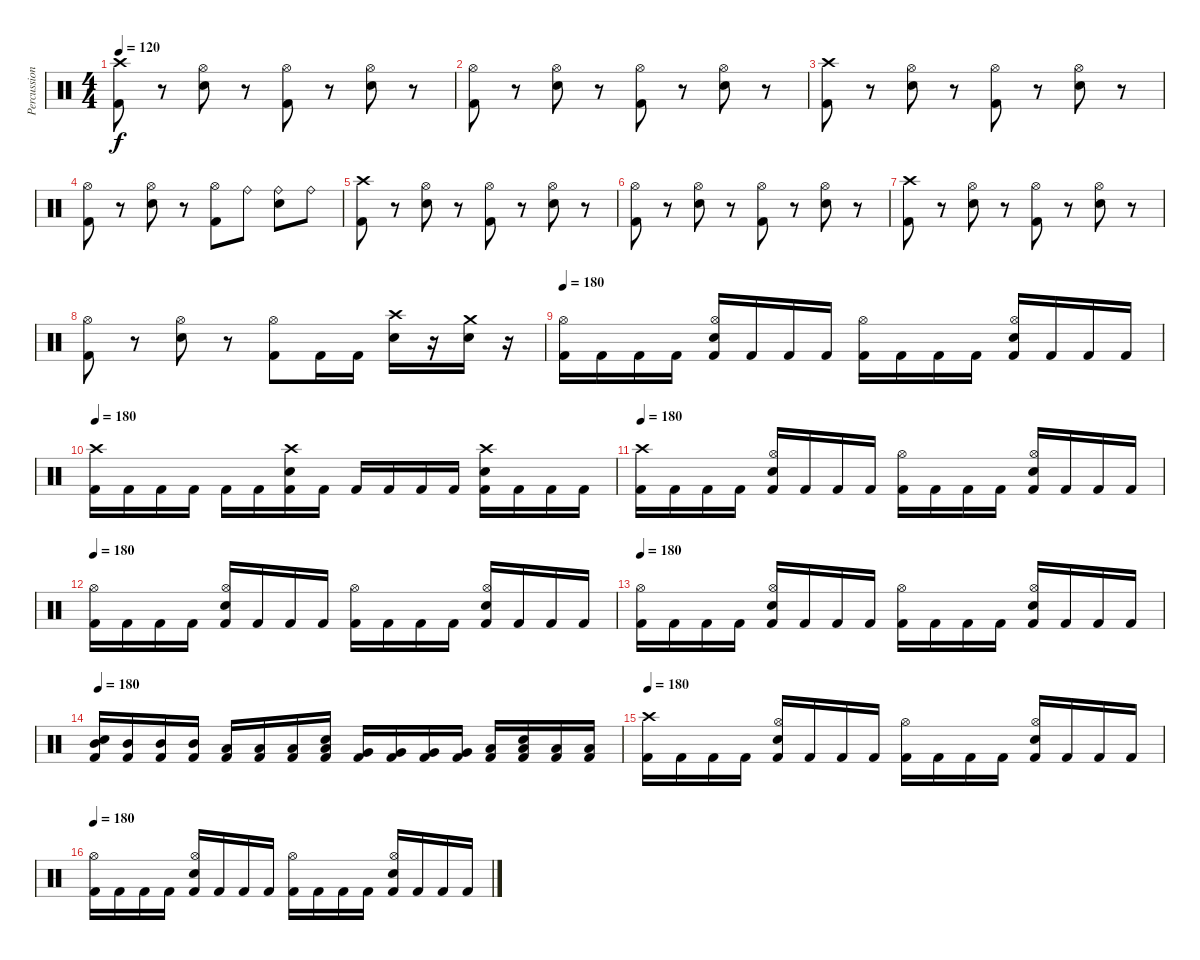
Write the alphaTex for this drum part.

\track ("Percussion" "Percussion") {instrument percussion}
\staff {score}
\articulation defaults
\ts (4 4)
\tempo 120
\clef neutral
\ks c
("Crash high (hit)" "Kick (hit) 2").8{dy f} r.8 ("Hi-Hat (open)" "Snare (hit) 2").8 r.8 ("Hi-Hat (open)" "Kick (hit) 2").8 r.8 ("Hi-Hat (open)" "Snare (hit) 2").8 r.8 |
("Hi-Hat (open)" "Kick (hit) 2").8 r.8 ("Hi-Hat (open)" "Snare (hit) 2").8 r.8 ("Hi-Hat (open)" "Kick (hit) 2").8 r.8 ("Hi-Hat (open)" "Snare (hit) 2").8 r.8 |
("Crash high (hit)" "Kick (hit) 2").8 r.8 ("Hi-Hat (open)" "Snare (hit) 2").8 r.8 ("Hi-Hat (open)" "Kick (hit) 2").8 r.8 ("Hi-Hat (open)" "Snare (hit) 2").8 r.8 |
("Hi-Hat (open)" "Kick (hit) 2").8 r.8 ("Hi-Hat (open)" "Snare (hit) 2").8 r.8 ("Hi-Hat (open)" "Kick (hit) 2").8 "Ride (bell)".8 ("Ride (bell)" "Snare (hit) 2").8 "Ride (bell)".8 |
("Crash high (hit)" "Kick (hit) 2").8 r.8 ("Hi-Hat (open)" "Snare (hit) 2").8 r.8 ("Hi-Hat (open)" "Kick (hit) 2").8 r.8 ("Hi-Hat (open)" "Snare (hit) 2").8 r.8 |
("Hi-Hat (open)" "Kick (hit) 2").8 r.8 ("Hi-Hat (open)" "Snare (hit) 2").8 r.8 ("Hi-Hat (open)" "Kick (hit) 2").8 r.8 ("Hi-Hat (open)" "Snare (hit) 2").8 r.8 |
("Crash high (hit)" "Kick (hit) 2").8 r.8 ("Hi-Hat (open)" "Snare (hit) 2").8 r.8 ("Hi-Hat (open)" "Kick (hit) 2").8 r.8 ("Hi-Hat (open)" "Snare (hit) 2").8 r.8 |
("Hi-Hat (open)" "Kick (hit) 2").8 r.8 ("Hi-Hat (open)" "Snare (hit) 2").8 r.8 ("Hi-Hat (open)" "Kick (hit) 2").8 "Kick (hit) 2".16 "Kick (hit) 2".16 ("Crash high (hit)" "Snare (hit) 2").16 r.16 ("Crash medium (hit)" "Snare (hit) 2").16 r.16 |
\tempo 180
("Hi-Hat (open)" "Kick (hit) 2").16 "Kick (hit) 2".16 "Kick (hit) 2".16 "Kick (hit) 2".16 ("Hi-Hat (open)" "Snare (hit) 2" "Kick (hit) 2").16 "Kick (hit) 2".16 "Kick (hit) 2".16 "Kick (hit) 2".16 ("Hi-Hat (open)" "Kick (hit) 2").16 "Kick (hit) 2".16 "Kick (hit) 2".16 "Kick (hit) 2".16 ("Hi-Hat (open)" "Snare (hit) 2" "Kick (hit) 2").16 "Kick (hit) 2".16 "Kick (hit) 2".16 "Kick (hit) 2".16 |
\tempo 180
("Crash high (hit)" "Kick (hit) 2").16 "Kick (hit) 2".16 "Kick (hit) 2".16 "Kick (hit) 2".16 "Kick (hit) 2".16 "Kick (hit) 2".16 ("Crash high (hit)" "Snare (hit) 2" "Kick (hit) 2").16 "Kick (hit) 2".16 "Kick (hit) 2".16 "Kick (hit) 2".16 "Kick (hit) 2".16 "Kick (hit) 2".16 ("Crash high (hit)" "Snare (hit) 2" "Kick (hit) 2").16 "Kick (hit) 2".16 "Kick (hit) 2".16 "Kick (hit) 2".16 |
\tempo 180
("Crash high (hit)" "Kick (hit) 2").16 "Kick (hit) 2".16 "Kick (hit) 2".16 "Kick (hit) 2".16 ("Hi-Hat (open)" "Snare (hit) 2" "Kick (hit) 2").16 "Kick (hit) 2".16 "Kick (hit) 2".16 "Kick (hit) 2".16 ("Hi-Hat (open)" "Kick (hit) 2").16 "Kick (hit) 2".16 "Kick (hit) 2".16 "Kick (hit) 2".16 ("Hi-Hat (open)" "Snare (hit) 2" "Kick (hit) 2").16 "Kick (hit) 2".16 "Kick (hit) 2".16 "Kick (hit) 2".16 |
\tempo 180
("Hi-Hat (open)" "Kick (hit) 2").16 "Kick (hit) 2".16 "Kick (hit) 2".16 "Kick (hit) 2".16 ("Hi-Hat (open)" "Snare (hit) 2" "Kick (hit) 2").16 "Kick (hit) 2".16 "Kick (hit) 2".16 "Kick (hit) 2".16 ("Hi-Hat (open)" "Kick (hit) 2").16 "Kick (hit) 2".16 "Kick (hit) 2".16 "Kick (hit) 2".16 ("Hi-Hat (open)" "Snare (hit) 2" "Kick (hit) 2").16 "Kick (hit) 2".16 "Kick (hit) 2".16 "Kick (hit) 2".16 |
\tempo 180
("Hi-Hat (open)" "Kick (hit) 2").16 "Kick (hit) 2".16 "Kick (hit) 2".16 "Kick (hit) 2".16 ("Hi-Hat (open)" "Snare (hit) 2" "Kick (hit) 2").16 "Kick (hit) 2".16 "Kick (hit) 2".16 "Kick (hit) 2".16 ("Hi-Hat (open)" "Kick (hit) 2").16 "Kick (hit) 2".16 "Kick (hit) 2".16 "Kick (hit) 2".16 ("Hi-Hat (open)" "Snare (hit) 2" "Kick (hit) 2").16 "Kick (hit) 2".16 "Kick (hit) 2".16 "Kick (hit) 2".16 |
\tempo 180
("Mid Tom (hit)" "Snare (hit) 2" "Kick (hit) 2").16 ("Mid Tom (hit)" "Kick (hit) 2").16 ("Mid Tom (hit)" "Kick (hit) 2").16 ("Mid Tom (hit)" "Kick (hit) 2").16 ("Low Tom (hit)" "Kick (hit) 2").16 ("Low Tom (hit)" "Kick (hit) 2").16 ("Low Tom (hit)" "Kick (hit) 2").16 ("Low Tom (hit)" "Snare (hit) 2" "Kick (hit) 2").16 ("Very Low Tom (hit)" "Kick (hit) 2").16 ("Very Low Tom (hit)" "Kick (hit) 2").16 ("Very Low Tom (hit)" "Kick (hit) 2").16 ("Very Low Tom (hit)" "Kick (hit) 2").16 ("Low Floor Tom (hit)" "Kick (hit) 2").16 ("Low Floor Tom (hit)" "Snare (hit) 2" "Kick (hit) 2").16 ("Low Floor Tom (hit)" "Kick (hit) 2").16 ("Low Floor Tom (hit)" "Kick (hit) 2").16 |
\tempo 180
("Crash high (hit)" "Kick (hit) 2").16 "Kick (hit) 2".16 "Kick (hit) 2".16 "Kick (hit) 2".16 ("Hi-Hat (open)" "Snare (hit) 2" "Kick (hit) 2").16 "Kick (hit) 2".16 "Kick (hit) 2".16 "Kick (hit) 2".16 ("Hi-Hat (open)" "Kick (hit) 2").16 "Kick (hit) 2".16 "Kick (hit) 2".16 "Kick (hit) 2".16 ("Hi-Hat (open)" "Snare (hit) 2" "Kick (hit) 2").16 "Kick (hit) 2".16 "Kick (hit) 2".16 "Kick (hit) 2".16 |
\tempo 180
("Hi-Hat (open)" "Kick (hit) 2").16 "Kick (hit) 2".16 "Kick (hit) 2".16 "Kick (hit) 2".16 ("Hi-Hat (open)" "Snare (hit) 2" "Kick (hit) 2").16 "Kick (hit) 2".16 "Kick (hit) 2".16 "Kick (hit) 2".16 ("Hi-Hat (open)" "Kick (hit) 2").16 "Kick (hit) 2".16 "Kick (hit) 2".16 "Kick (hit) 2".16 ("Hi-Hat (open)" "Snare (hit) 2" "Kick (hit) 2").16 "Kick (hit) 2".16 "Kick (hit) 2".16 "Kick (hit) 2".16
